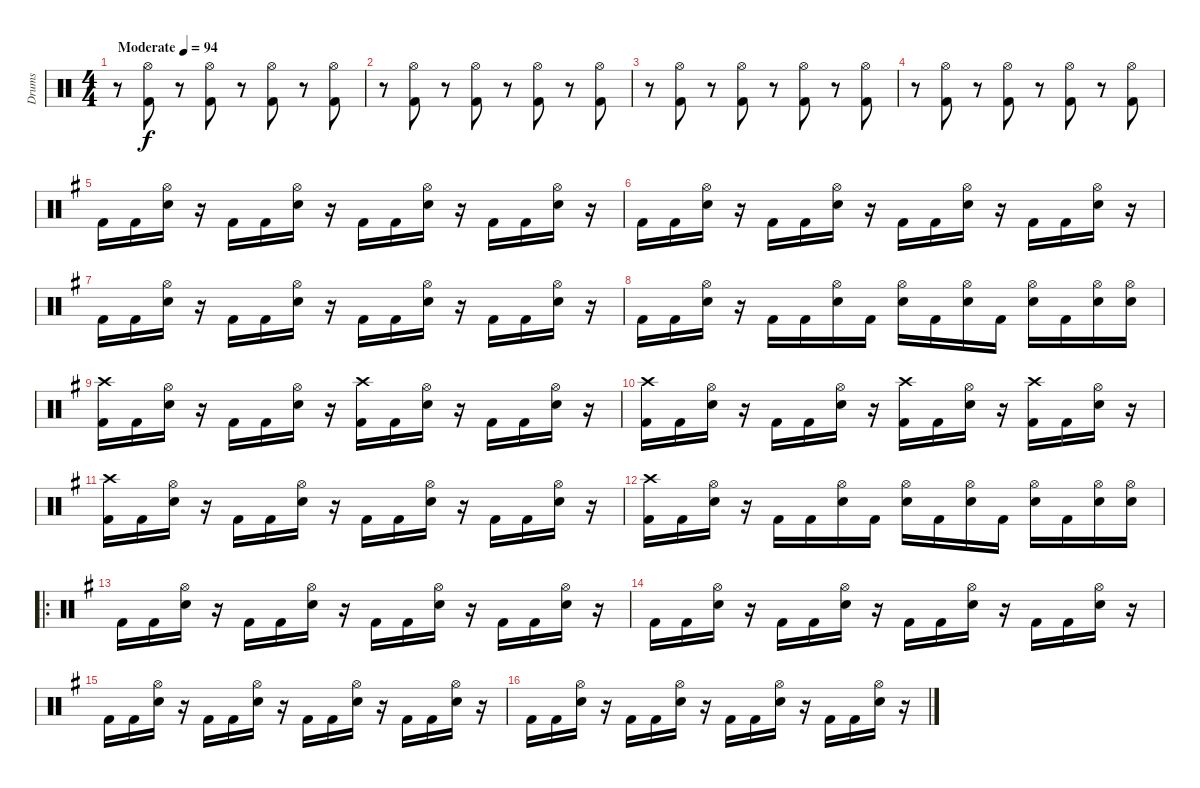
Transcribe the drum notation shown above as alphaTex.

\track ("Drums" "Drums") {instrument percussion}
\staff {score}
\articulation defaults
\ts (4 4)
\tempo (94 "Moderate")
\clef neutral
\ks c
r.8{dy f} ("Hi-Hat (open)" "Kick (hit) 2").8 r.8 ("Hi-Hat (open)" "Kick (hit) 2").8 r.8 ("Hi-Hat (open)" "Kick (hit) 2").8 r.8 ("Hi-Hat (open)" "Kick (hit) 2").8 |
r.8 ("Hi-Hat (open)" "Kick (hit) 2").8 r.8 ("Hi-Hat (open)" "Kick (hit) 2").8 r.8 ("Hi-Hat (open)" "Kick (hit) 2").8 r.8 ("Hi-Hat (open)" "Kick (hit) 2").8 |
r.8 ("Hi-Hat (open)" "Kick (hit) 2").8 r.8 ("Hi-Hat (open)" "Kick (hit) 2").8 r.8 ("Hi-Hat (open)" "Kick (hit) 2").8 r.8 ("Hi-Hat (open)" "Kick (hit) 2").8 |
r.8 ("Hi-Hat (open)" "Kick (hit) 2").8 r.8 ("Hi-Hat (open)" "Kick (hit) 2").8 r.8 ("Hi-Hat (open)" "Kick (hit) 2").8 r.8 ("Hi-Hat (open)" "Kick (hit) 2").8 |
\ks g "Kick (hit) 2".16 "Kick (hit) 2".16
("Hi-Hat (open)" "Snare (hit) 2").16 r.16 "Kick (hit) 2".16 "Kick (hit) 2".16 ("Hi-Hat (open)" "Snare (hit) 2").16 r.16 "Kick (hit) 2".16 "Kick (hit) 2".16 ("Hi-Hat (open)" "Snare (hit) 2").16 r.16 "Kick (hit) 2".16 "Kick (hit) 2".16 ("Hi-Hat (open)" "Snare (hit) 2").16 r.16 |
"Kick (hit) 2".16 "Kick (hit) 2".16 ("Hi-Hat (open)" "Snare (hit) 2").16 r.16 "Kick (hit) 2".16 "Kick (hit) 2".16 ("Hi-Hat (open)" "Snare (hit) 2").16 r.16 "Kick (hit) 2".16 "Kick (hit) 2".16 ("Hi-Hat (open)" "Snare (hit) 2").16 r.16 "Kick (hit) 2".16 "Kick (hit) 2".16 ("Hi-Hat (open)" "Snare (hit) 2").16 r.16 |
"Kick (hit) 2".16 "Kick (hit) 2".16 ("Hi-Hat (open)" "Snare (hit) 2").16 r.16 "Kick (hit) 2".16 "Kick (hit) 2".16 ("Hi-Hat (open)" "Snare (hit) 2").16 r.16 "Kick (hit) 2".16 "Kick (hit) 2".16 ("Hi-Hat (open)" "Snare (hit) 2").16 r.16 "Kick (hit) 2".16 "Kick (hit) 2".16 ("Hi-Hat (open)" "Snare (hit) 2").16 r.16 |
"Kick (hit) 2".16 "Kick (hit) 2".16 ("Hi-Hat (open)" "Snare (hit) 2").16 r.16 "Kick (hit) 2".16 "Kick (hit) 2".16 ("Hi-Hat (open)" "Snare (hit) 2").16 "Kick (hit) 2".16 ("Hi-Hat (open)" "Snare (hit) 2").16 "Kick (hit) 2".16 ("Hi-Hat (open)" "Snare (hit) 2").16 "Kick (hit) 2".16 ("Hi-Hat (open)" "Snare (hit) 2").16 "Kick (hit) 2".16 ("Hi-Hat (open)" "Snare (hit) 2").16 ("Hi-Hat (open)" "Snare (hit) 2").16 |
("Crash high (hit)" "Kick (hit) 2").16 "Kick (hit) 2".16 ("Hi-Hat (open)" "Snare (hit) 2").16 r.16 "Kick (hit) 2".16 "Kick (hit) 2".16 ("Hi-Hat (open)" "Snare (hit) 2").16 r.16 ("Crash high (hit)" "Kick (hit) 2").16 "Kick (hit) 2".16 ("Hi-Hat (open)" "Snare (hit) 2").16 r.16 "Kick (hit) 2".16 "Kick (hit) 2".16 ("Hi-Hat (open)" "Snare (hit) 2").16 r.16 |
("Crash high (hit)" "Kick (hit) 2").16 "Kick (hit) 2".16 ("Hi-Hat (open)" "Snare (hit) 2").16 r.16 "Kick (hit) 2".16 "Kick (hit) 2".16 ("Hi-Hat (open)" "Snare (hit) 2").16 r.16 ("Crash high (hit)" "Kick (hit) 2").16 "Kick (hit) 2".16 ("Hi-Hat (open)" "Snare (hit) 2").16 r.16 ("Crash high (hit)" "Kick (hit) 2").16 "Kick (hit) 2".16 ("Hi-Hat (open)" "Snare (hit) 2").16 r.16 |
("Crash high (hit)" "Kick (hit) 2").16 "Kick (hit) 2".16 ("Hi-Hat (open)" "Snare (hit) 2").16 r.16 "Kick (hit) 2".16 "Kick (hit) 2".16 ("Hi-Hat (open)" "Snare (hit) 2").16 r.16 "Kick (hit) 2".16 "Kick (hit) 2".16 ("Hi-Hat (open)" "Snare (hit) 2").16 r.16 "Kick (hit) 2".16 "Kick (hit) 2".16 ("Hi-Hat (open)" "Snare (hit) 2").16 r.16 |
("Crash high (hit)" "Kick (hit) 2").16 "Kick (hit) 2".16 ("Hi-Hat (open)" "Snare (hit) 2").16 r.16 "Kick (hit) 2".16 "Kick (hit) 2".16 ("Hi-Hat (open)" "Snare (hit) 2").16 "Kick (hit) 2".16 ("Hi-Hat (open)" "Snare (hit) 2").16 "Kick (hit) 2".16 ("Hi-Hat (open)" "Snare (hit) 2").16 "Kick (hit) 2".16 ("Hi-Hat (open)" "Snare (hit) 2").16 "Kick (hit) 2".16 ("Hi-Hat (open)" "Snare (hit) 2").16 ("Hi-Hat (open)" "Snare (hit) 2").16 |
\ro "Kick (hit) 2".16 "Kick (hit) 2".16
("Hi-Hat (open)" "Snare (hit) 2").16 r.16 "Kick (hit) 2".16 "Kick (hit) 2".16 ("Hi-Hat (open)" "Snare (hit) 2").16 r.16 "Kick (hit) 2".16 "Kick (hit) 2".16 ("Hi-Hat (open)" "Snare (hit) 2").16 r.16 "Kick (hit) 2".16 "Kick (hit) 2".16 ("Hi-Hat (open)" "Snare (hit) 2").16 r.16 |
"Kick (hit) 2".16 "Kick (hit) 2".16 ("Hi-Hat (open)" "Snare (hit) 2").16 r.16 "Kick (hit) 2".16 "Kick (hit) 2".16 ("Hi-Hat (open)" "Snare (hit) 2").16 r.16 "Kick (hit) 2".16 "Kick (hit) 2".16 ("Hi-Hat (open)" "Snare (hit) 2").16 r.16 "Kick (hit) 2".16 "Kick (hit) 2".16 ("Hi-Hat (open)" "Snare (hit) 2").16 r.16 |
"Kick (hit) 2".16 "Kick (hit) 2".16 ("Hi-Hat (open)" "Snare (hit) 2").16 r.16 "Kick (hit) 2".16 "Kick (hit) 2".16 ("Hi-Hat (open)" "Snare (hit) 2").16 r.16 "Kick (hit) 2".16 "Kick (hit) 2".16 ("Hi-Hat (open)" "Snare (hit) 2").16 r.16 "Kick (hit) 2".16 "Kick (hit) 2".16 ("Hi-Hat (open)" "Snare (hit) 2").16 r.16 |
"Kick (hit) 2".16 "Kick (hit) 2".16 ("Hi-Hat (open)" "Snare (hit) 2").16 r.16 "Kick (hit) 2".16 "Kick (hit) 2".16 ("Hi-Hat (open)" "Snare (hit) 2").16 r.16 "Kick (hit) 2".16 "Kick (hit) 2".16 ("Hi-Hat (open)" "Snare (hit) 2").16 r.16 "Kick (hit) 2".16 "Kick (hit) 2".16 ("Hi-Hat (open)" "Snare (hit) 2").16 r.16
